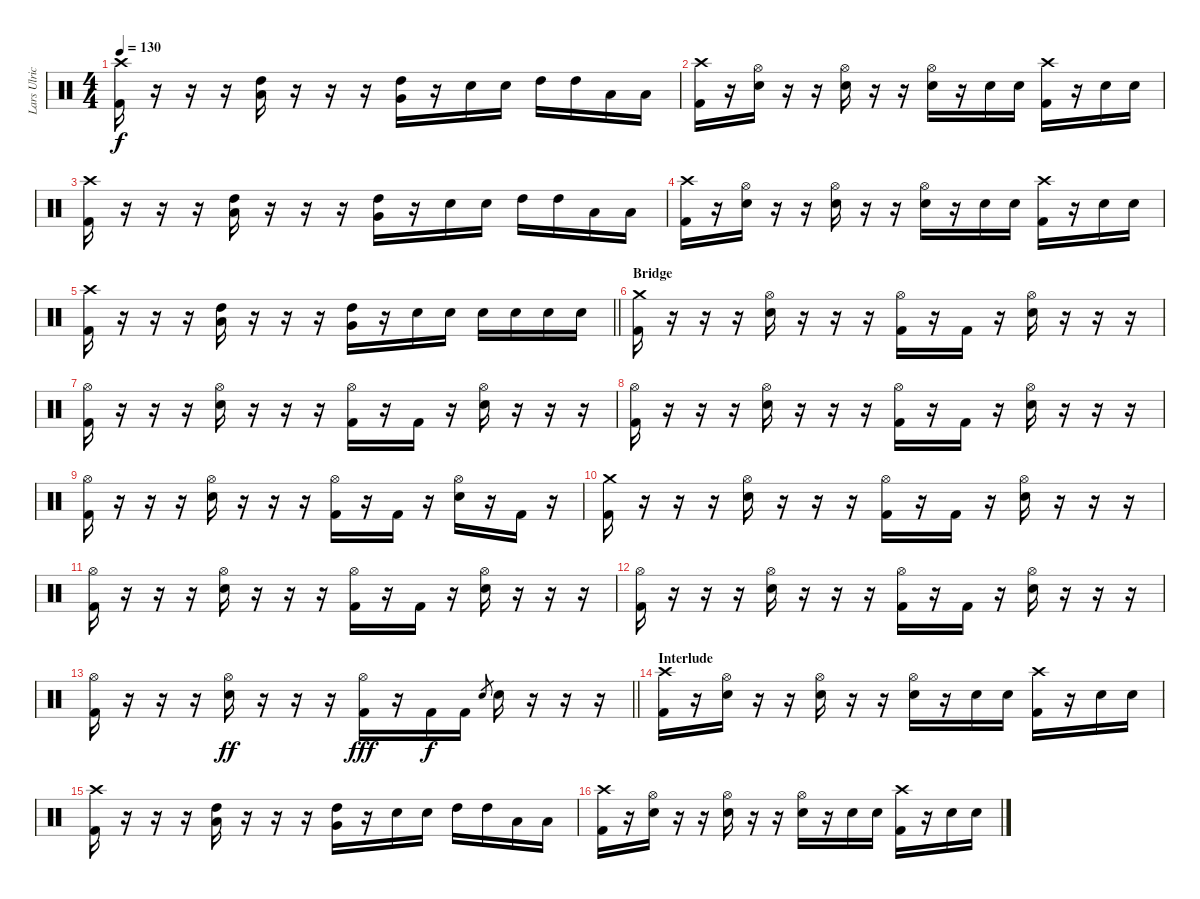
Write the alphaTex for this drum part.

\track ("Lars Ulrich" "Lars Ulric") {instrument percussion}
\staff {score}
\articulation defaults
\ts (4 4)
\tempo 130
\clef neutral
\ks c
("Crash high (hit)" "Kick (hit) 2").16{dy f} r.16 r.16 r.16 ("Low Tom (hit)" "High Tom (hit)").16 r.16 r.16 r.16 ("Very Low Tom (hit)" "High Tom (hit)").16 r.16 "Electric Snare (hit)".16 "Electric Snare (hit)".16 "High Tom (hit)".16 "High Tom (hit)".16 "Low Tom (hit)".16 "Low Tom (hit)".16 |
("Crash high (hit)" "Kick (hit) 2").16 r.16 ("Electric Snare (hit)" "Hi-Hat (open)").16 r.16 r.16 ("Electric Snare (hit)" "Hi-Hat (open)").16 r.16 r.16 ("Electric Snare (hit)" "Hi-Hat (open)").16 r.16 "Electric Snare (hit)".16 "Electric Snare (hit)".16 ("Crash high (hit)" "Kick (hit) 2").16 r.16 "Electric Snare (hit)".16 "Electric Snare (hit)".16 |
("Crash high (hit)" "Kick (hit) 2").16 r.16 r.16 r.16 ("Low Tom (hit)" "High Tom (hit)").16 r.16 r.16 r.16 ("Very Low Tom (hit)" "High Tom (hit)").16 r.16 "Electric Snare (hit)".16 "Electric Snare (hit)".16 "High Tom (hit)".16 "High Tom (hit)".16 "Low Tom (hit)".16 "Low Tom (hit)".16 |
("Crash high (hit)" "Kick (hit) 2").16 r.16 ("Electric Snare (hit)" "Hi-Hat (open)").16 r.16 r.16 ("Electric Snare (hit)" "Hi-Hat (open)").16 r.16 r.16 ("Electric Snare (hit)" "Hi-Hat (open)").16 r.16 "Electric Snare (hit)".16 "Electric Snare (hit)".16 ("Crash high (hit)" "Kick (hit) 2").16 r.16 "Electric Snare (hit)".16 "Electric Snare (hit)".16 |
\barLineRight lightlight
("Crash high (hit)" "Kick (hit) 2").16 r.16 r.16 r.16 ("Low Tom (hit)" "High Tom (hit)").16 r.16 r.16 r.16 ("Very Low Tom (hit)" "High Tom (hit)").16 r.16 "Electric Snare (hit)".16 "Electric Snare (hit)".16 "Electric Snare (hit)".16 "Electric Snare (hit)".16 "Electric Snare (hit)".16 "Electric Snare (hit)".16 |
\section ("" "Bridge")
("Crash medium (hit)" "Kick (hit) 2").16 r.16 r.16 r.16 ("Electric Snare (hit)" "Hi-Hat (open)").16 r.16 r.16 r.16 ("Hi-Hat (open)" "Kick (hit) 2").16 r.16 "Kick (hit) 2".16 r.16 ("Electric Snare (hit)" "Hi-Hat (open)").16 r.16 r.16 r.16 |
("Hi-Hat (open)" "Kick (hit) 2").16 r.16 r.16 r.16 ("Electric Snare (hit)" "Hi-Hat (open)").16 r.16 r.16 r.16 ("Hi-Hat (open)" "Kick (hit) 2").16 r.16 "Kick (hit) 2".16 r.16 ("Electric Snare (hit)" "Hi-Hat (open)").16 r.16 r.16 r.16 |
("Hi-Hat (open)" "Kick (hit) 2").16 r.16 r.16 r.16 ("Electric Snare (hit)" "Hi-Hat (open)").16 r.16 r.16 r.16 ("Hi-Hat (open)" "Kick (hit) 2").16 r.16 "Kick (hit) 2".16 r.16 ("Electric Snare (hit)" "Hi-Hat (open)").16 r.16 r.16 r.16 |
("Hi-Hat (open)" "Kick (hit) 2").16 r.16 r.16 r.16 ("Electric Snare (hit)" "Hi-Hat (open)").16 r.16 r.16 r.16 ("Hi-Hat (open)" "Kick (hit) 2").16 r.16 "Kick (hit) 2".16 r.16 ("Electric Snare (hit)" "Hi-Hat (open)").16 r.16 "Kick (hit) 2".16 r.16 |
("Crash medium (hit)" "Kick (hit) 2").16 r.16 r.16 r.16 ("Electric Snare (hit)" "Hi-Hat (open)").16 r.16 r.16 r.16 ("Hi-Hat (open)" "Kick (hit) 2").16 r.16 "Kick (hit) 2".16 r.16 ("Electric Snare (hit)" "Hi-Hat (open)").16 r.16 r.16 r.16 |
("Hi-Hat (open)" "Kick (hit) 2").16 r.16 r.16 r.16 ("Electric Snare (hit)" "Hi-Hat (open)").16 r.16 r.16 r.16 ("Hi-Hat (open)" "Kick (hit) 2").16 r.16 "Kick (hit) 2".16 r.16 ("Electric Snare (hit)" "Hi-Hat (open)").16 r.16 r.16 r.16 |
("Hi-Hat (open)" "Kick (hit) 2").16 r.16 r.16 r.16 ("Electric Snare (hit)" "Hi-Hat (open)").16 r.16 r.16 r.16 ("Hi-Hat (open)" "Kick (hit) 2").16 r.16 "Kick (hit) 2".16 r.16 ("Electric Snare (hit)" "Hi-Hat (open)").16 r.16 r.16 r.16 |
\barLineRight lightlight
("Hi-Hat (open)" "Kick (hit) 2").16 r.16 r.16 r.16 ("Electric Snare (hit)" "Hi-Hat (open)").16{dy ff} r.16 r.16 r.16 ("Hi-Hat (open)" "Kick (hit) 2").16{dy fff} r.16 "Kick (hit) 2".16{dy f} "Kick (hit) 2".16 "Electric Snare (hit)".8{gr} "Electric Snare (hit)".16 r.16 r.16 r.16 |
\section ("" "Interlude")
("Crash high (hit)" "Kick (hit) 2").16 r.16 ("Electric Snare (hit)" "Hi-Hat (open)").16 r.16 r.16 ("Electric Snare (hit)" "Hi-Hat (open)").16 r.16 r.16 ("Electric Snare (hit)" "Hi-Hat (open)").16 r.16 "Electric Snare (hit)".16 "Electric Snare (hit)".16 ("Crash high (hit)" "Kick (hit) 2").16 r.16 "Electric Snare (hit)".16 "Electric Snare (hit)".16 |
("Crash high (hit)" "Kick (hit) 2").16 r.16 r.16 r.16 ("Low Tom (hit)" "High Tom (hit)").16 r.16 r.16 r.16 ("Very Low Tom (hit)" "High Tom (hit)").16 r.16 "Electric Snare (hit)".16 "Electric Snare (hit)".16 "High Tom (hit)".16 "High Tom (hit)".16 "Low Tom (hit)".16 "Low Tom (hit)".16 |
("Crash high (hit)" "Kick (hit) 2").16 r.16 ("Electric Snare (hit)" "Hi-Hat (open)").16 r.16 r.16 ("Electric Snare (hit)" "Hi-Hat (open)").16 r.16 r.16 ("Electric Snare (hit)" "Hi-Hat (open)").16 r.16 "Electric Snare (hit)".16 "Electric Snare (hit)".16 ("Crash high (hit)" "Kick (hit) 2").16 r.16 "Electric Snare (hit)".16 "Electric Snare (hit)".16
